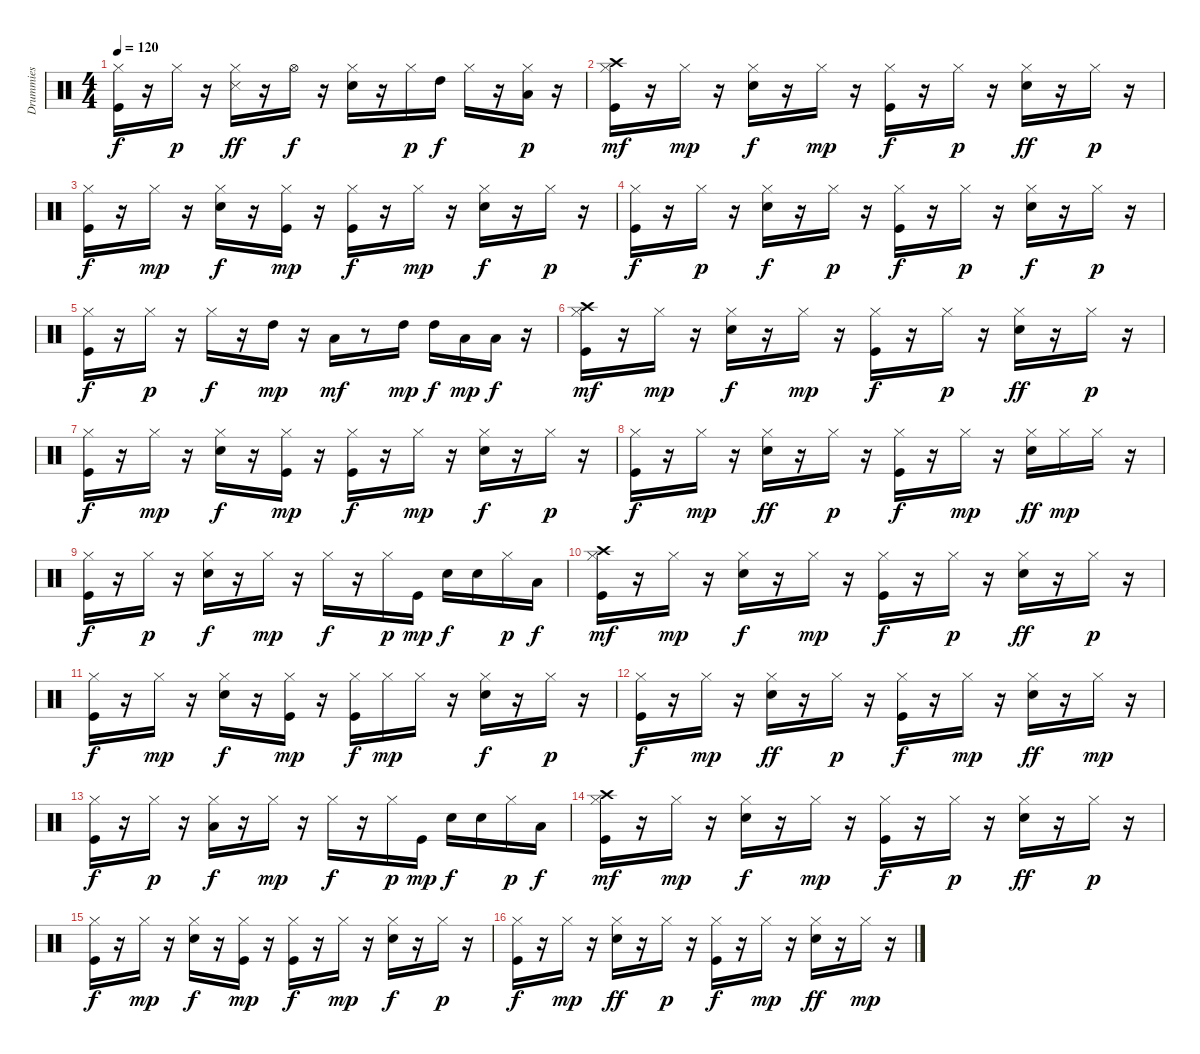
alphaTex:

\track ("Drummies" "Drummies") {instrument percussion}
\staff {score}
\articulation defaults
\ts (4 4)
\tempo 120
\clef neutral
\ks c
("Kick (hit)" "Hi-Hat (closed)").16{dy f} r.16 "Hi-Hat (closed)".16{dy p} r.16 ("Hi-Hat (closed)" "Snare (side stick) 3").16{dy ff} r.16 "Hi-Hat (open)".16{dy f} r.16 ("Snare (hit) 2" "Hi-Hat (closed)").16 r.16 "Hi-Hat (closed)".16{dy p} "High Tom (hit)".16{dy f} "Hi-Hat (closed)".16 r.16 ("Hi-Hat (closed)" "Low Tom (hit)").16{dy p} r.16 |
("Kick (hit)" "Hi-Hat (closed)" "Crash high (hit)").16{dy mf} r.16 "Hi-Hat (closed)".16{dy mp} r.16 ("Snare (hit) 2" "Hi-Hat (closed)").16{dy f} r.16 "Hi-Hat (closed)".16{dy mp} r.16 ("Kick (hit)" "Hi-Hat (closed)").16{dy f} r.16 "Hi-Hat (closed)".16{dy p} r.16 ("Snare (hit) 2" "Hi-Hat (closed)").16{dy ff} r.16 "Hi-Hat (closed)".16{dy p} r.16 |
("Kick (hit)" "Hi-Hat (closed)").16{dy f} r.16 "Hi-Hat (closed)".16{dy mp} r.16 ("Snare (hit) 2" "Hi-Hat (closed)").16{dy f} r.16 ("Kick (hit)" "Hi-Hat (closed)").16{dy mp} r.16 ("Kick (hit)" "Hi-Hat (closed)").16{dy f} r.16 "Hi-Hat (closed)".16{dy mp} r.16 ("Snare (hit) 2" "Hi-Hat (closed)").16{dy f} r.16 "Hi-Hat (closed)".16{dy p} r.16 |
("Kick (hit)" "Hi-Hat (closed)").16{dy f} r.16 "Hi-Hat (closed)".16{dy p} r.16 ("Snare (hit) 2" "Hi-Hat (closed)").16{dy f} r.16 "Hi-Hat (closed)".16{dy p} r.16 ("Kick (hit)" "Hi-Hat (closed)").16{dy f} r.16 "Hi-Hat (closed)".16{dy p} r.16 ("Snare (hit) 2" "Hi-Hat (closed)").16{dy f} r.16 "Hi-Hat (closed)".16{dy p} r.16 |
("Kick (hit)" "Hi-Hat (closed)").16{dy f} r.16 "Hi-Hat (closed)".16{dy p} r.16 "Hi-Hat (closed)".16{dy f} r.16 "High Tom (hit)".16{dy mp} r.16 "Low Tom (hit)".16{dy mf} r.8 "High Tom (hit)".16{dy mp} "High Tom (hit)".16{dy f} "Low Tom (hit)".16{dy mp} "Low Tom (hit)".16{dy f} r.16 |
("Kick (hit)" "Hi-Hat (closed)" "Crash high (hit)").16{dy mf} r.16 "Hi-Hat (closed)".16{dy mp} r.16 ("Snare (hit) 2" "Hi-Hat (closed)").16{dy f} r.16 "Hi-Hat (closed)".16{dy mp} r.16 ("Kick (hit)" "Hi-Hat (closed)").16{dy f} r.16 "Hi-Hat (closed)".16{dy p} r.16 ("Snare (hit) 2" "Hi-Hat (closed)").16{dy ff} r.16 "Hi-Hat (closed)".16{dy p} r.16 |
("Kick (hit)" "Hi-Hat (closed)").16{dy f} r.16 "Hi-Hat (closed)".16{dy mp} r.16 ("Snare (hit) 2" "Hi-Hat (closed)").16{dy f} r.16 ("Kick (hit)" "Hi-Hat (closed)").16{dy mp} r.16 ("Kick (hit)" "Hi-Hat (closed)").16{dy f} r.16 "Hi-Hat (closed)".16{dy mp} r.16 ("Snare (hit) 2" "Hi-Hat (closed)").16{dy f} r.16 "Hi-Hat (closed)".16{dy p} r.16 |
("Kick (hit)" "Hi-Hat (closed)").16{dy f} r.16 "Hi-Hat (closed)".16{dy mp} r.16 ("Snare (hit) 2" "Hi-Hat (closed)").16{dy ff} r.16 "Hi-Hat (closed)".16{dy p} r.16 ("Kick (hit)" "Hi-Hat (closed)").16{dy f} r.16 "Hi-Hat (closed)".16{dy mp} r.16 ("Snare (hit) 2" "Hi-Hat (closed)").16{dy ff} "Hi-Hat (closed)".16{dy mp} "Hi-Hat (closed)".16 r.16 |
("Kick (hit)" "Hi-Hat (closed)").16{dy f} r.16 "Hi-Hat (closed)".16{dy p} r.16 ("Snare (hit) 2" "Hi-Hat (closed)").16{dy f} r.16 "Hi-Hat (closed)".16{dy mp} r.16 "Hi-Hat (closed)".16{dy f} r.16 "Hi-Hat (closed)".16{dy p} "Kick (hit)".16{dy mp} "Snare (hit) 2".16{dy f} "Snare (hit) 2".16 "Hi-Hat (closed)".16{dy p} "Low Tom (hit)".16{dy f} |
("Kick (hit)" "Hi-Hat (closed)" "Crash high (hit)").16{dy mf} r.16 "Hi-Hat (closed)".16{dy mp} r.16 ("Snare (hit) 2" "Hi-Hat (closed)").16{dy f} r.16 "Hi-Hat (closed)".16{dy mp} r.16 ("Kick (hit)" "Hi-Hat (closed)").16{dy f} r.16 "Hi-Hat (closed)".16{dy p} r.16 ("Snare (hit) 2" "Hi-Hat (closed)").16{dy ff} r.16 "Hi-Hat (closed)".16{dy p} r.16 |
("Kick (hit)" "Hi-Hat (closed)").16{dy f} r.16 "Hi-Hat (closed)".16{dy mp} r.16 ("Snare (hit) 2" "Hi-Hat (closed)").16{dy f} r.16 ("Kick (hit)" "Hi-Hat (closed)").16{dy mp} r.16 ("Kick (hit)" "Hi-Hat (closed)").16{dy f} "Hi-Hat (closed)".16{dy mp} "Hi-Hat (closed)".16 r.16 ("Snare (hit) 2" "Hi-Hat (closed)").16{dy f} r.16 "Hi-Hat (closed)".16{dy p} r.16 |
("Kick (hit)" "Hi-Hat (closed)").16{dy f} r.16 "Hi-Hat (closed)".16{dy mp} r.16 ("Snare (hit) 2" "Hi-Hat (closed)").16{dy ff} r.16 "Hi-Hat (closed)".16{dy p} r.16 ("Kick (hit)" "Hi-Hat (closed)").16{dy f} r.16 "Hi-Hat (closed)".16{dy mp} r.16 ("Snare (hit) 2" "Hi-Hat (closed)").16{dy ff} r.16 "Hi-Hat (closed)".16{dy mp} r.16 |
("Kick (hit)" "Hi-Hat (closed)").16{dy f} r.16 "Hi-Hat (closed)".16{dy p} r.16 ("Hi-Hat (closed)" "Low Tom (hit)").16{dy f} r.16 "Hi-Hat (closed)".16{dy mp} r.16 "Hi-Hat (closed)".16{dy f} r.16 "Hi-Hat (closed)".16{dy p} "Kick (hit)".16{dy mp} "Snare (hit) 2".16{dy f} "Snare (hit) 2".16 "Hi-Hat (closed)".16{dy p} "Low Tom (hit)".16{dy f} |
("Kick (hit)" "Hi-Hat (closed)" "Crash high (hit)").16{dy mf} r.16 "Hi-Hat (closed)".16{dy mp} r.16 ("Snare (hit) 2" "Hi-Hat (closed)").16{dy f} r.16 "Hi-Hat (closed)".16{dy mp} r.16 ("Kick (hit)" "Hi-Hat (closed)").16{dy f} r.16 "Hi-Hat (closed)".16{dy p} r.16 ("Snare (hit) 2" "Hi-Hat (closed)").16{dy ff} r.16 "Hi-Hat (closed)".16{dy p} r.16 |
("Kick (hit)" "Hi-Hat (closed)").16{dy f} r.16 "Hi-Hat (closed)".16{dy mp} r.16 ("Snare (hit) 2" "Hi-Hat (closed)").16{dy f} r.16 ("Kick (hit)" "Hi-Hat (closed)").16{dy mp} r.16 ("Kick (hit)" "Hi-Hat (closed)").16{dy f} r.16 "Hi-Hat (closed)".16{dy mp} r.16 ("Snare (hit) 2" "Hi-Hat (closed)").16{dy f} r.16 "Hi-Hat (closed)".16{dy p} r.16 |
("Kick (hit)" "Hi-Hat (closed)").16{dy f} r.16 "Hi-Hat (closed)".16{dy mp} r.16 ("Snare (hit) 2" "Hi-Hat (closed)").16{dy ff} r.16 "Hi-Hat (closed)".16{dy p} r.16 ("Kick (hit)" "Hi-Hat (closed)").16{dy f} r.16 "Hi-Hat (closed)".16{dy mp} r.16 ("Snare (hit) 2" "Hi-Hat (closed)").16{dy ff} r.16 "Hi-Hat (closed)".16{dy mp} r.16
